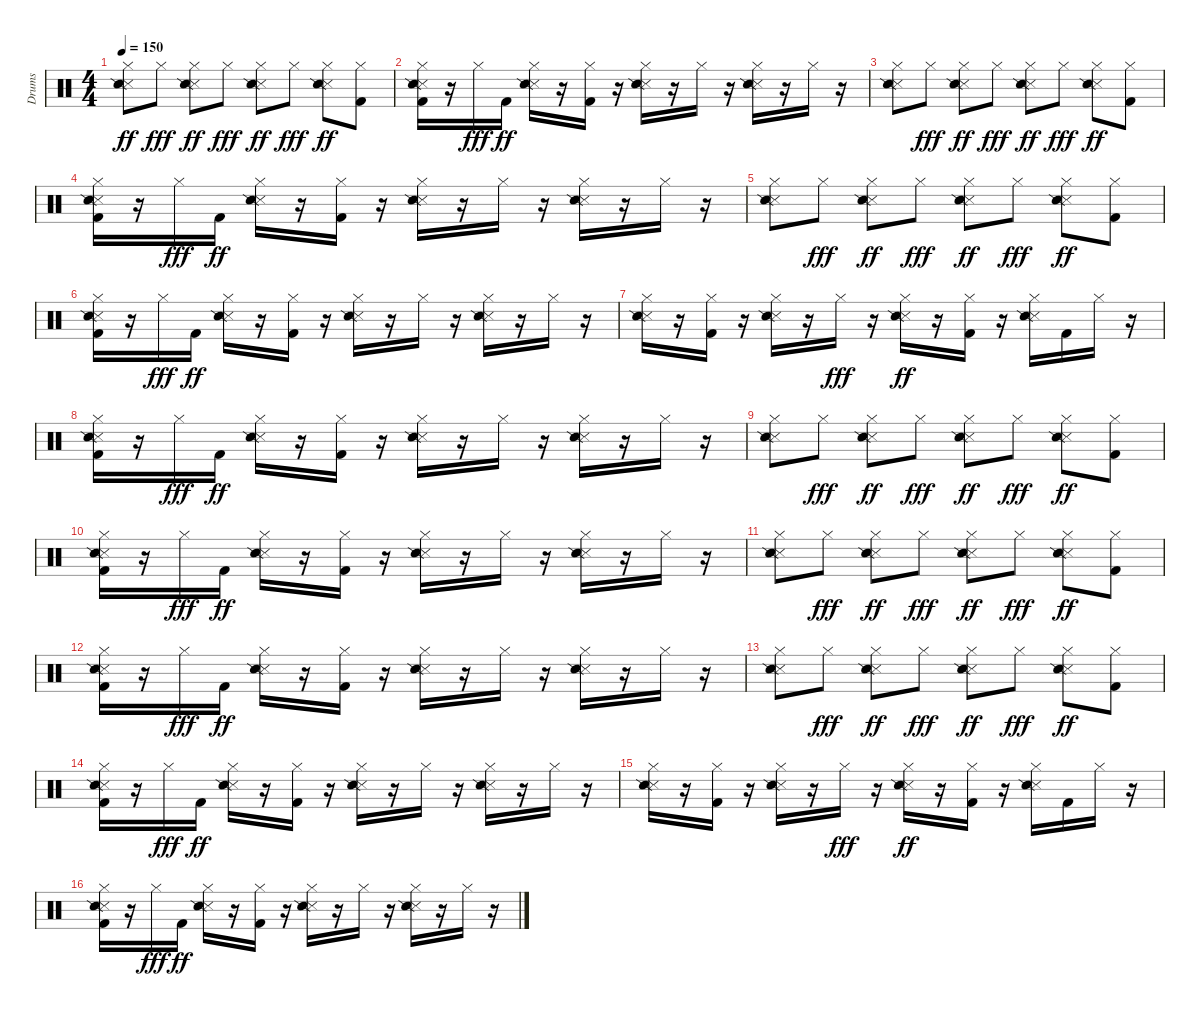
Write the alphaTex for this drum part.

\track ("Drums" "Drums") {instrument percussion}
\staff
\articulation defaults
\ts (4 4)
\tempo 150
\clef neutral
\ks c
("Hi-Hat (closed)" "Snare (side stick) 3" "Snare (side stick) 2").8{dy ff} "Hi-Hat (closed)".8{dy fff} ("Hi-Hat (closed)" "Snare (side stick) 3" "Snare (side stick) 2").8{dy ff} "Hi-Hat (closed)".8{dy fff} ("Hi-Hat (closed)" "Snare (side stick) 3" "Snare (side stick) 2").8{dy ff} "Hi-Hat (closed)".8{dy fff} ("Hi-Hat (closed)" "Snare (side stick) 3" "Snare (side stick) 2").8{dy ff} ("Hi-Hat (closed)" "Kick (hit) 2").8 |
("Hi-Hat (closed)" "Snare (side stick) 3" "Snare (side stick) 2" "Kick (hit) 2").16 r.16 "Hi-Hat (closed)".16{dy fff} "Kick (hit) 2".16{dy ff} ("Hi-Hat (closed)" "Snare (side stick) 3" "Snare (side stick) 2").16 r.16 ("Hi-Hat (closed)" "Kick (hit) 2").16 r.16 ("Hi-Hat (closed)" "Snare (side stick) 3" "Snare (side stick) 2").16 r.16 "Hi-Hat (closed)".16 r.16 ("Hi-Hat (closed)" "Snare (side stick) 3" "Snare (side stick) 2").16 r.16 "Hi-Hat (closed)".16 r.16 |
("Hi-Hat (closed)" "Snare (side stick) 3" "Snare (side stick) 2").8 "Hi-Hat (closed)".8{dy fff} ("Hi-Hat (closed)" "Snare (side stick) 3" "Snare (side stick) 2").8{dy ff} "Hi-Hat (closed)".8{dy fff} ("Hi-Hat (closed)" "Snare (side stick) 3" "Snare (side stick) 2").8{dy ff} "Hi-Hat (closed)".8{dy fff} ("Hi-Hat (closed)" "Snare (side stick) 3" "Snare (side stick) 2").8{dy ff} ("Hi-Hat (closed)" "Kick (hit) 2").8 |
("Hi-Hat (closed)" "Snare (side stick) 3" "Snare (side stick) 2" "Kick (hit) 2").16 r.16 "Hi-Hat (closed)".16{dy fff} "Kick (hit) 2".16{dy ff} ("Hi-Hat (closed)" "Snare (side stick) 3" "Snare (side stick) 2").16 r.16 ("Hi-Hat (closed)" "Kick (hit) 2").16 r.16 ("Hi-Hat (closed)" "Snare (side stick) 3" "Snare (side stick) 2").16 r.16 "Hi-Hat (closed)".16 r.16 ("Hi-Hat (closed)" "Snare (side stick) 3" "Snare (side stick) 2").16 r.16 "Hi-Hat (closed)".16 r.16 |
("Hi-Hat (closed)" "Snare (side stick) 3" "Snare (side stick) 2").8 "Hi-Hat (closed)".8{dy fff} ("Hi-Hat (closed)" "Snare (side stick) 3" "Snare (side stick) 2").8{dy ff} "Hi-Hat (closed)".8{dy fff} ("Hi-Hat (closed)" "Snare (side stick) 3" "Snare (side stick) 2").8{dy ff} "Hi-Hat (closed)".8{dy fff} ("Hi-Hat (closed)" "Snare (side stick) 3" "Snare (side stick) 2").8{dy ff} ("Hi-Hat (closed)" "Kick (hit) 2").8 |
("Hi-Hat (closed)" "Snare (side stick) 3" "Snare (side stick) 2" "Kick (hit) 2").16 r.16 "Hi-Hat (closed)".16{dy fff} "Kick (hit) 2".16{dy ff} ("Hi-Hat (closed)" "Snare (side stick) 3" "Snare (side stick) 2").16 r.16 ("Hi-Hat (closed)" "Kick (hit) 2").16 r.16 ("Hi-Hat (closed)" "Snare (side stick) 3" "Snare (side stick) 2").16 r.16 "Hi-Hat (closed)".16 r.16 ("Hi-Hat (closed)" "Snare (side stick) 3" "Snare (side stick) 2").16 r.16 "Hi-Hat (closed)".16 r.16 |
("Hi-Hat (closed)" "Snare (side stick) 3" "Snare (side stick) 2").16 r.16 ("Hi-Hat (closed)" "Kick (hit) 2").16 r.16 ("Hi-Hat (closed)" "Snare (side stick) 3" "Snare (side stick) 2").16 r.16 "Hi-Hat (closed)".16{dy fff} r.16 ("Hi-Hat (closed)" "Snare (side stick) 3" "Snare (side stick) 2").16{dy ff} r.16 ("Hi-Hat (closed)" "Kick (hit) 2").16 r.16 ("Hi-Hat (closed)" "Snare (side stick) 3" "Snare (side stick) 2").16 "Kick (hit) 2".16 "Hi-Hat (closed)".16 r.16 |
("Hi-Hat (closed)" "Snare (side stick) 3" "Snare (side stick) 2" "Kick (hit) 2").16 r.16 "Hi-Hat (closed)".16{dy fff} "Kick (hit) 2".16{dy ff} ("Hi-Hat (closed)" "Snare (side stick) 3" "Snare (side stick) 2").16 r.16 ("Hi-Hat (closed)" "Kick (hit) 2").16 r.16 ("Hi-Hat (closed)" "Snare (side stick) 3" "Snare (side stick) 2").16 r.16 "Hi-Hat (closed)".16 r.16 ("Hi-Hat (closed)" "Snare (side stick) 3" "Snare (side stick) 2").16 r.16 "Hi-Hat (closed)".16 r.16 |
("Hi-Hat (closed)" "Snare (side stick) 3" "Snare (side stick) 2").8 "Hi-Hat (closed)".8{dy fff} ("Hi-Hat (closed)" "Snare (side stick) 3" "Snare (side stick) 2").8{dy ff} "Hi-Hat (closed)".8{dy fff} ("Hi-Hat (closed)" "Snare (side stick) 3" "Snare (side stick) 2").8{dy ff} "Hi-Hat (closed)".8{dy fff} ("Hi-Hat (closed)" "Snare (side stick) 3" "Snare (side stick) 2").8{dy ff} ("Hi-Hat (closed)" "Kick (hit) 2").8 |
("Hi-Hat (closed)" "Snare (side stick) 3" "Snare (side stick) 2" "Kick (hit) 2").16 r.16 "Hi-Hat (closed)".16{dy fff} "Kick (hit) 2".16{dy ff} ("Hi-Hat (closed)" "Snare (side stick) 3" "Snare (side stick) 2").16 r.16 ("Hi-Hat (closed)" "Kick (hit) 2").16 r.16 ("Hi-Hat (closed)" "Snare (side stick) 3" "Snare (side stick) 2").16 r.16 "Hi-Hat (closed)".16 r.16 ("Hi-Hat (closed)" "Snare (side stick) 3" "Snare (side stick) 2").16 r.16 "Hi-Hat (closed)".16 r.16 |
("Hi-Hat (closed)" "Snare (side stick) 3" "Snare (side stick) 2").8 "Hi-Hat (closed)".8{dy fff} ("Hi-Hat (closed)" "Snare (side stick) 3" "Snare (side stick) 2").8{dy ff} "Hi-Hat (closed)".8{dy fff} ("Hi-Hat (closed)" "Snare (side stick) 3" "Snare (side stick) 2").8{dy ff} "Hi-Hat (closed)".8{dy fff} ("Hi-Hat (closed)" "Snare (side stick) 3" "Snare (side stick) 2").8{dy ff} ("Hi-Hat (closed)" "Kick (hit) 2").8 |
("Hi-Hat (closed)" "Snare (side stick) 3" "Snare (side stick) 2" "Kick (hit) 2").16 r.16 "Hi-Hat (closed)".16{dy fff} "Kick (hit) 2".16{dy ff} ("Hi-Hat (closed)" "Snare (side stick) 3" "Snare (side stick) 2").16 r.16 ("Hi-Hat (closed)" "Kick (hit) 2").16 r.16 ("Hi-Hat (closed)" "Snare (side stick) 3" "Snare (side stick) 2").16 r.16 "Hi-Hat (closed)".16 r.16 ("Hi-Hat (closed)" "Snare (side stick) 3" "Snare (side stick) 2").16 r.16 "Hi-Hat (closed)".16 r.16 |
("Hi-Hat (closed)" "Snare (side stick) 3" "Snare (side stick) 2").8 "Hi-Hat (closed)".8{dy fff} ("Hi-Hat (closed)" "Snare (side stick) 3" "Snare (side stick) 2").8{dy ff} "Hi-Hat (closed)".8{dy fff} ("Hi-Hat (closed)" "Snare (side stick) 3" "Snare (side stick) 2").8{dy ff} "Hi-Hat (closed)".8{dy fff} ("Hi-Hat (closed)" "Snare (side stick) 3" "Snare (side stick) 2").8{dy ff} ("Hi-Hat (closed)" "Kick (hit) 2").8 |
("Hi-Hat (closed)" "Snare (side stick) 3" "Snare (side stick) 2" "Kick (hit) 2").16 r.16 "Hi-Hat (closed)".16{dy fff} "Kick (hit) 2".16{dy ff} ("Hi-Hat (closed)" "Snare (side stick) 3" "Snare (side stick) 2").16 r.16 ("Hi-Hat (closed)" "Kick (hit) 2").16 r.16 ("Hi-Hat (closed)" "Snare (side stick) 3" "Snare (side stick) 2").16 r.16 "Hi-Hat (closed)".16 r.16 ("Hi-Hat (closed)" "Snare (side stick) 3" "Snare (side stick) 2").16 r.16 "Hi-Hat (closed)".16 r.16 |
("Hi-Hat (closed)" "Snare (side stick) 3" "Snare (side stick) 2").16 r.16 ("Hi-Hat (closed)" "Kick (hit) 2").16 r.16 ("Hi-Hat (closed)" "Snare (side stick) 3" "Snare (side stick) 2").16 r.16 "Hi-Hat (closed)".16{dy fff} r.16 ("Hi-Hat (closed)" "Snare (side stick) 3" "Snare (side stick) 2").16{dy ff} r.16 ("Hi-Hat (closed)" "Kick (hit) 2").16 r.16 ("Hi-Hat (closed)" "Snare (side stick) 3" "Snare (side stick) 2").16 "Kick (hit) 2".16 "Hi-Hat (closed)".16 r.16 |
("Hi-Hat (closed)" "Snare (side stick) 3" "Snare (side stick) 2" "Kick (hit) 2").16 r.16 "Hi-Hat (closed)".16{dy fff} "Kick (hit) 2".16{dy ff} ("Hi-Hat (closed)" "Snare (side stick) 3" "Snare (side stick) 2").16 r.16 ("Hi-Hat (closed)" "Kick (hit) 2").16 r.16 ("Hi-Hat (closed)" "Snare (side stick) 3" "Snare (side stick) 2").16 r.16 "Hi-Hat (closed)".16 r.16 ("Hi-Hat (closed)" "Snare (side stick) 3" "Snare (side stick) 2").16 r.16 "Hi-Hat (closed)".16 r.16
